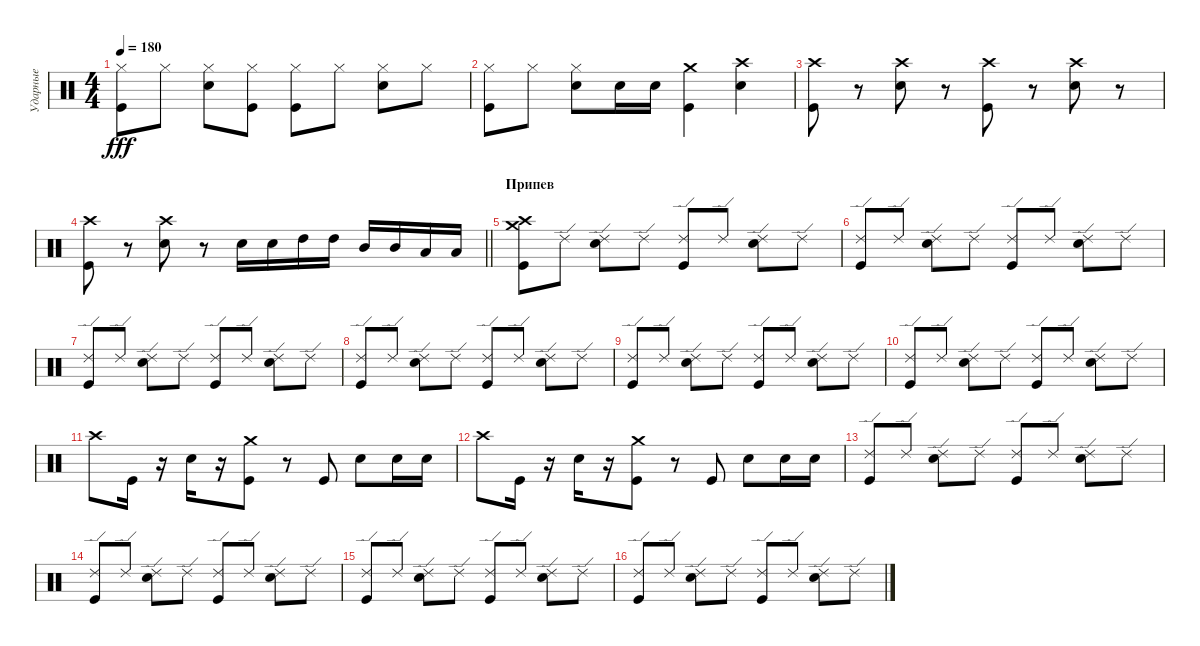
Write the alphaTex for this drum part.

\track ("Ударные" "Ударные") {instrument percussion}
\staff {score}
\articulation defaults
\ts (4 4)
\tempo 180
\clef neutral
\ks c
("Hi-Hat (closed)" "Kick (hit)").8{dy fff} "Hi-Hat (closed)".8 ("Hi-Hat (closed)" "Electric Snare (hit)").8 ("Hi-Hat (closed)" "Kick (hit)").8 ("Hi-Hat (closed)" "Kick (hit)").8 "Hi-Hat (closed)".8 ("Hi-Hat (closed)" "Electric Snare (hit)").8 "Hi-Hat (closed)".8 |
("Hi-Hat (closed)" "Kick (hit)").8 "Hi-Hat (closed)".8 ("Hi-Hat (closed)" "Electric Snare (hit)").8 "Electric Snare (hit)".16 "Electric Snare (hit)".16 ("Crash medium (hit)" "Kick (hit)").4 ("Crash high (hit)" "Electric Snare (hit)").4 |
("Crash high (hit)" "Kick (hit)").8 r.8 ("Crash high (hit)" "Electric Snare (hit)").8 r.8 ("Crash high (hit)" "Kick (hit)").8 r.8 ("Crash high (hit)" "Electric Snare (hit)").8 r.8 |
\barLineRight lightlight
("Kick (hit)" "Crash high (hit)").8 r.8 ("Electric Snare (hit)" "Crash high (hit)").8 r.8 "Electric Snare (hit)".16 "Electric Snare (hit)".16 "High Tom (hit)".16 "High Tom (hit)".16 "Mid Tom (hit)".16 "Mid Tom (hit)".16 "Low Tom (hit)".16 "Low Tom (hit)".16 |
\section ("" "Припев")
("Crash medium (hit)" "Kick (hit)" "Crash high (hit)").8 "Ride (edge) 2".8 ("Ride (edge) 2" "Electric Snare (hit)").8 "Ride (edge) 2".8 ("Ride (edge) 2" "Kick (hit)").8 "Ride (edge) 2".8 ("Ride (edge) 2" "Electric Snare (hit)").8 "Ride (edge) 2".8 |
("Ride (edge) 2" "Kick (hit)").8 "Ride (edge) 2".8 ("Ride (edge) 2" "Electric Snare (hit)").8 "Ride (edge) 2".8 ("Ride (edge) 2" "Kick (hit)").8 "Ride (edge) 2".8 ("Ride (edge) 2" "Electric Snare (hit)").8 "Ride (edge) 2".8 |
("Ride (edge) 2" "Kick (hit)").8 "Ride (edge) 2".8 ("Ride (edge) 2" "Electric Snare (hit)").8 "Ride (edge) 2".8 ("Ride (edge) 2" "Kick (hit)").8 "Ride (edge) 2".8 ("Ride (edge) 2" "Electric Snare (hit)").8 "Ride (edge) 2".8 |
("Ride (edge) 2" "Kick (hit)").8 "Ride (edge) 2".8 ("Ride (edge) 2" "Electric Snare (hit)").8 "Ride (edge) 2".8 ("Ride (edge) 2" "Kick (hit)").8 "Ride (edge) 2".8 ("Ride (edge) 2" "Electric Snare (hit)").8 "Ride (edge) 2".8 |
("Ride (edge) 2" "Kick (hit)").8 "Ride (edge) 2".8 ("Ride (edge) 2" "Electric Snare (hit)").8 "Ride (edge) 2".8 ("Ride (edge) 2" "Kick (hit)").8 "Ride (edge) 2".8 ("Ride (edge) 2" "Electric Snare (hit)").8 "Ride (edge) 2".8 |
("Ride (edge) 2" "Kick (hit)").8 "Ride (edge) 2".8 ("Ride (edge) 2" "Electric Snare (hit)").8 "Ride (edge) 2".8 ("Ride (edge) 2" "Kick (hit)").8 "Ride (edge) 2".8 ("Ride (edge) 2" "Electric Snare (hit)").8 "Ride (edge) 2".8 |
"Crash high (hit)".8 "Kick (hit)".16 r.16 "Electric Snare (hit)".16 r.16 ("Crash medium (hit)" "Kick (hit)").8 r.8 "Kick (hit)".8 "Electric Snare (hit)".8 "Electric Snare (hit)".16 "Electric Snare (hit)".16 |
"Crash high (hit)".8 "Kick (hit)".16 r.16 "Electric Snare (hit)".16 r.16 ("Crash medium (hit)" "Kick (hit)").8 r.8 "Kick (hit)".8 "Electric Snare (hit)".8 "Electric Snare (hit)".16 "Electric Snare (hit)".16 |
("Ride (edge) 2" "Kick (hit)").8 "Ride (edge) 2".8 ("Ride (edge) 2" "Electric Snare (hit)").8 "Ride (edge) 2".8 ("Ride (edge) 2" "Kick (hit)").8 "Ride (edge) 2".8 ("Ride (edge) 2" "Electric Snare (hit)").8 "Ride (edge) 2".8 |
("Ride (edge) 2" "Kick (hit)").8 "Ride (edge) 2".8 ("Ride (edge) 2" "Electric Snare (hit)").8 "Ride (edge) 2".8 ("Ride (edge) 2" "Kick (hit)").8 "Ride (edge) 2".8 ("Ride (edge) 2" "Electric Snare (hit)").8 "Ride (edge) 2".8 |
("Ride (edge) 2" "Kick (hit)").8 "Ride (edge) 2".8 ("Ride (edge) 2" "Electric Snare (hit)").8 "Ride (edge) 2".8 ("Ride (edge) 2" "Kick (hit)").8 "Ride (edge) 2".8 ("Ride (edge) 2" "Electric Snare (hit)").8 "Ride (edge) 2".8 |
("Ride (edge) 2" "Kick (hit)").8 "Ride (edge) 2".8 ("Ride (edge) 2" "Electric Snare (hit)").8 "Ride (edge) 2".8 ("Ride (edge) 2" "Kick (hit)").8 "Ride (edge) 2".8 ("Ride (edge) 2" "Electric Snare (hit)").8 "Ride (edge) 2".8
